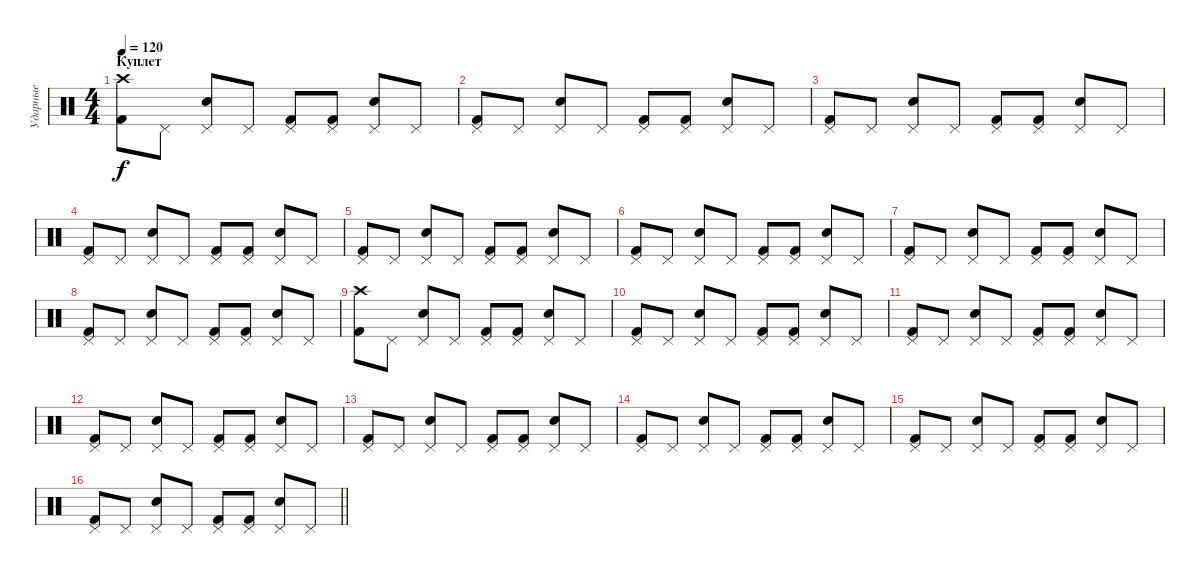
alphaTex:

\track ("Ударные" "Ударные") {instrument percussion}
\staff {score}
\articulation defaults
\ts (4 4)
\section ("" "Куплет")
\tempo 120
\clef neutral
\ks c
("Kick (hit) 2" "Crash high (hit)").8{dy f} "Pedal Hi-Hat (hit)".8 ("Electric Snare (hit)" "Pedal Hi-Hat (hit)").8 "Pedal Hi-Hat (hit)".8 ("Kick (hit) 2" "Pedal Hi-Hat (hit)").8 ("Kick (hit) 2" "Pedal Hi-Hat (hit)").8 ("Electric Snare (hit)" "Pedal Hi-Hat (hit)").8 "Pedal Hi-Hat (hit)".8 |
("Kick (hit) 2" "Pedal Hi-Hat (hit)").8 "Pedal Hi-Hat (hit)".8 ("Electric Snare (hit)" "Pedal Hi-Hat (hit)").8 "Pedal Hi-Hat (hit)".8 ("Kick (hit) 2" "Pedal Hi-Hat (hit)").8 ("Kick (hit) 2" "Pedal Hi-Hat (hit)").8 ("Electric Snare (hit)" "Pedal Hi-Hat (hit)").8 "Pedal Hi-Hat (hit)".8 |
("Kick (hit) 2" "Pedal Hi-Hat (hit)").8 "Pedal Hi-Hat (hit)".8 ("Electric Snare (hit)" "Pedal Hi-Hat (hit)").8 "Pedal Hi-Hat (hit)".8 ("Kick (hit) 2" "Pedal Hi-Hat (hit)").8 ("Kick (hit) 2" "Pedal Hi-Hat (hit)").8 ("Electric Snare (hit)" "Pedal Hi-Hat (hit)").8 "Pedal Hi-Hat (hit)".8 |
("Kick (hit) 2" "Pedal Hi-Hat (hit)").8 "Pedal Hi-Hat (hit)".8 ("Electric Snare (hit)" "Pedal Hi-Hat (hit)").8 "Pedal Hi-Hat (hit)".8 ("Kick (hit) 2" "Pedal Hi-Hat (hit)").8 ("Kick (hit) 2" "Pedal Hi-Hat (hit)").8 ("Electric Snare (hit)" "Pedal Hi-Hat (hit)").8 "Pedal Hi-Hat (hit)".8 |
("Kick (hit) 2" "Pedal Hi-Hat (hit)").8 "Pedal Hi-Hat (hit)".8 ("Electric Snare (hit)" "Pedal Hi-Hat (hit)").8 "Pedal Hi-Hat (hit)".8 ("Kick (hit) 2" "Pedal Hi-Hat (hit)").8 ("Kick (hit) 2" "Pedal Hi-Hat (hit)").8 ("Electric Snare (hit)" "Pedal Hi-Hat (hit)").8 "Pedal Hi-Hat (hit)".8 |
("Kick (hit) 2" "Pedal Hi-Hat (hit)").8 "Pedal Hi-Hat (hit)".8 ("Electric Snare (hit)" "Pedal Hi-Hat (hit)").8 "Pedal Hi-Hat (hit)".8 ("Kick (hit) 2" "Pedal Hi-Hat (hit)").8 ("Kick (hit) 2" "Pedal Hi-Hat (hit)").8 ("Electric Snare (hit)" "Pedal Hi-Hat (hit)").8 "Pedal Hi-Hat (hit)".8 |
("Kick (hit) 2" "Pedal Hi-Hat (hit)").8 "Pedal Hi-Hat (hit)".8 ("Electric Snare (hit)" "Pedal Hi-Hat (hit)").8 "Pedal Hi-Hat (hit)".8 ("Kick (hit) 2" "Pedal Hi-Hat (hit)").8 ("Kick (hit) 2" "Pedal Hi-Hat (hit)").8 ("Electric Snare (hit)" "Pedal Hi-Hat (hit)").8 "Pedal Hi-Hat (hit)".8 |
("Kick (hit) 2" "Pedal Hi-Hat (hit)").8 "Pedal Hi-Hat (hit)".8 ("Electric Snare (hit)" "Pedal Hi-Hat (hit)").8 "Pedal Hi-Hat (hit)".8 ("Kick (hit) 2" "Pedal Hi-Hat (hit)").8 ("Kick (hit) 2" "Pedal Hi-Hat (hit)").8 ("Electric Snare (hit)" "Pedal Hi-Hat (hit)").8 "Pedal Hi-Hat (hit)".8 |
("Kick (hit) 2" "Crash high (hit)").8 "Pedal Hi-Hat (hit)".8 ("Electric Snare (hit)" "Pedal Hi-Hat (hit)").8 "Pedal Hi-Hat (hit)".8 ("Kick (hit) 2" "Pedal Hi-Hat (hit)").8 ("Kick (hit) 2" "Pedal Hi-Hat (hit)").8 ("Electric Snare (hit)" "Pedal Hi-Hat (hit)").8 "Pedal Hi-Hat (hit)".8 |
("Kick (hit) 2" "Pedal Hi-Hat (hit)").8 "Pedal Hi-Hat (hit)".8 ("Electric Snare (hit)" "Pedal Hi-Hat (hit)").8 "Pedal Hi-Hat (hit)".8 ("Kick (hit) 2" "Pedal Hi-Hat (hit)").8 ("Kick (hit) 2" "Pedal Hi-Hat (hit)").8 ("Electric Snare (hit)" "Pedal Hi-Hat (hit)").8 "Pedal Hi-Hat (hit)".8 |
("Kick (hit) 2" "Pedal Hi-Hat (hit)").8 "Pedal Hi-Hat (hit)".8 ("Electric Snare (hit)" "Pedal Hi-Hat (hit)").8 "Pedal Hi-Hat (hit)".8 ("Kick (hit) 2" "Pedal Hi-Hat (hit)").8 ("Kick (hit) 2" "Pedal Hi-Hat (hit)").8 ("Electric Snare (hit)" "Pedal Hi-Hat (hit)").8 "Pedal Hi-Hat (hit)".8 |
("Kick (hit) 2" "Pedal Hi-Hat (hit)").8 "Pedal Hi-Hat (hit)".8 ("Electric Snare (hit)" "Pedal Hi-Hat (hit)").8 "Pedal Hi-Hat (hit)".8 ("Kick (hit) 2" "Pedal Hi-Hat (hit)").8 ("Kick (hit) 2" "Pedal Hi-Hat (hit)").8 ("Electric Snare (hit)" "Pedal Hi-Hat (hit)").8 "Pedal Hi-Hat (hit)".8 |
("Kick (hit) 2" "Pedal Hi-Hat (hit)").8 "Pedal Hi-Hat (hit)".8 ("Electric Snare (hit)" "Pedal Hi-Hat (hit)").8 "Pedal Hi-Hat (hit)".8 ("Kick (hit) 2" "Pedal Hi-Hat (hit)").8 ("Kick (hit) 2" "Pedal Hi-Hat (hit)").8 ("Electric Snare (hit)" "Pedal Hi-Hat (hit)").8 "Pedal Hi-Hat (hit)".8 |
("Kick (hit) 2" "Pedal Hi-Hat (hit)").8 "Pedal Hi-Hat (hit)".8 ("Electric Snare (hit)" "Pedal Hi-Hat (hit)").8 "Pedal Hi-Hat (hit)".8 ("Kick (hit) 2" "Pedal Hi-Hat (hit)").8 ("Kick (hit) 2" "Pedal Hi-Hat (hit)").8 ("Electric Snare (hit)" "Pedal Hi-Hat (hit)").8 "Pedal Hi-Hat (hit)".8 |
("Kick (hit) 2" "Pedal Hi-Hat (hit)").8 "Pedal Hi-Hat (hit)".8 ("Electric Snare (hit)" "Pedal Hi-Hat (hit)").8 "Pedal Hi-Hat (hit)".8 ("Kick (hit) 2" "Pedal Hi-Hat (hit)").8 ("Kick (hit) 2" "Pedal Hi-Hat (hit)").8 ("Electric Snare (hit)" "Pedal Hi-Hat (hit)").8 "Pedal Hi-Hat (hit)".8 |
\barLineRight lightlight
("Kick (hit) 2" "Pedal Hi-Hat (hit)").8 "Pedal Hi-Hat (hit)".8 ("Electric Snare (hit)" "Pedal Hi-Hat (hit)").8 "Pedal Hi-Hat (hit)".8 ("Kick (hit) 2" "Pedal Hi-Hat (hit)").8 ("Kick (hit) 2" "Pedal Hi-Hat (hit)").8 ("Electric Snare (hit)" "Pedal Hi-Hat (hit)").8 "Pedal Hi-Hat (hit)".8
